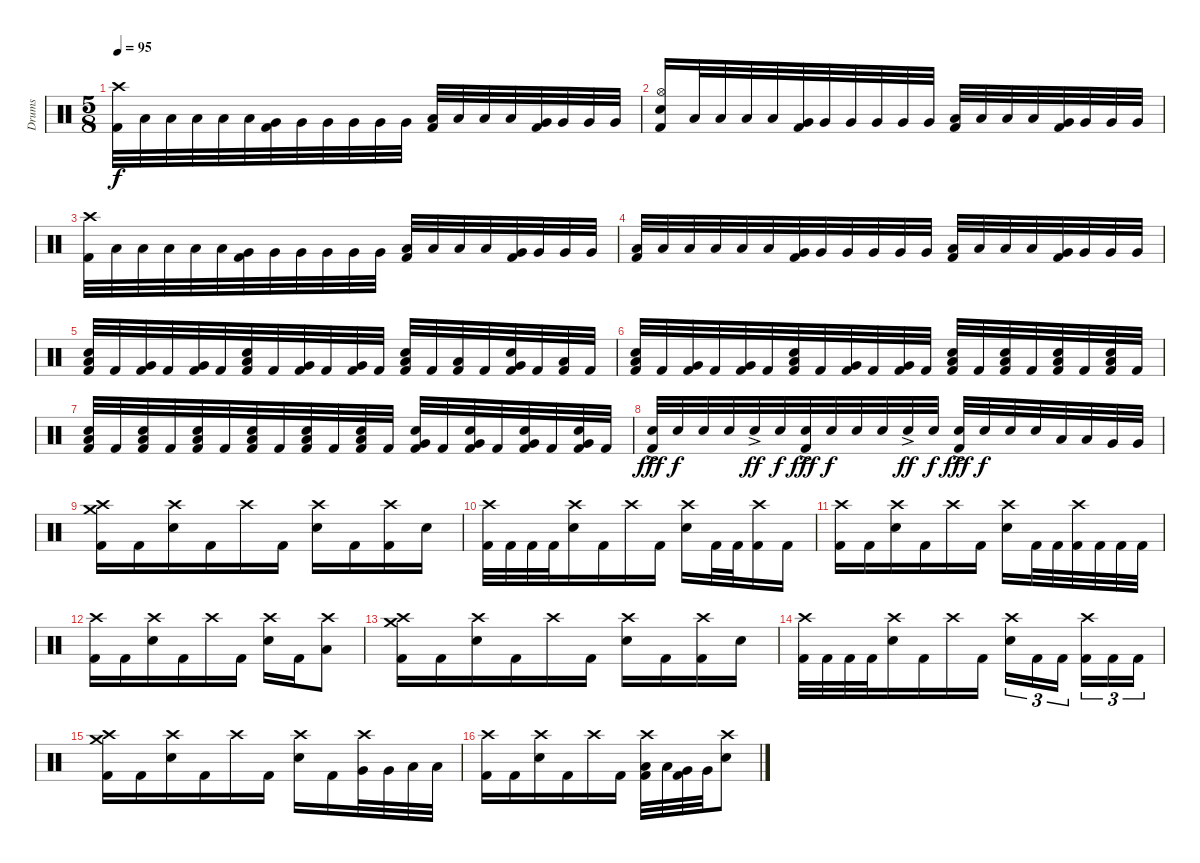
\track ("Drums" "Drums") {instrument percussion}
\staff {score}
\articulation defaults
\ts (5 8)
\tempo 95
\clef neutral
\ks c
("Crash high (hit)" "Kick (hit) 2").32{dy f} "Low Tom (hit)".32 "Low Tom (hit)".32 "Low Tom (hit)".32 "Low Tom (hit)".32 "Low Tom (hit)".32 ("Very Low Tom (hit)" "Kick (hit) 2").32 "Very Low Tom (hit)".32 "Very Low Tom (hit)".32 "Very Low Tom (hit)".32 "Very Low Tom (hit)".32 "Very Low Tom (hit)".32 ("Low Tom (hit)" "Kick (hit) 2").32 "Low Tom (hit)".32 "Low Tom (hit)".32 "Low Tom (hit)".32 ("Very Low Tom (hit)" "Kick (hit) 2").32 "Very Low Tom (hit)".32 "Very Low Tom (hit)".32 "Very Low Tom (hit)".32 |
("Hi-Hat (open)" "Snare (hit) 2" "Kick (hit) 2").16 "Low Tom (hit)".32 "Low Tom (hit)".32 "Low Tom (hit)".32 "Low Tom (hit)".32 ("Very Low Tom (hit)" "Kick (hit) 2").32 "Very Low Tom (hit)".32 "Very Low Tom (hit)".32 "Very Low Tom (hit)".32 "Very Low Tom (hit)".32 "Very Low Tom (hit)".32 ("Low Tom (hit)" "Kick (hit) 2").32 "Low Tom (hit)".32 "Low Tom (hit)".32 "Low Tom (hit)".32 ("Very Low Tom (hit)" "Kick (hit) 2").32 "Very Low Tom (hit)".32 "Very Low Tom (hit)".32 "Very Low Tom (hit)".32 |
("Crash high (hit)" "Kick (hit) 2").32 "Low Tom (hit)".32 "Low Tom (hit)".32 "Low Tom (hit)".32 "Low Tom (hit)".32 "Low Tom (hit)".32 ("Very Low Tom (hit)" "Kick (hit) 2").32 "Very Low Tom (hit)".32 "Very Low Tom (hit)".32 "Very Low Tom (hit)".32 "Very Low Tom (hit)".32 "Very Low Tom (hit)".32 ("Low Tom (hit)" "Kick (hit) 2").32 "Low Tom (hit)".32 "Low Tom (hit)".32 "Low Tom (hit)".32 ("Very Low Tom (hit)" "Kick (hit) 2").32 "Very Low Tom (hit)".32 "Very Low Tom (hit)".32 "Very Low Tom (hit)".32 |
("Low Tom (hit)" "Kick (hit) 2").32 "Low Tom (hit)".32 "Low Tom (hit)".32 "Low Tom (hit)".32 "Low Tom (hit)".32 "Low Tom (hit)".32 ("Very Low Tom (hit)" "Kick (hit) 2").32 "Very Low Tom (hit)".32 "Very Low Tom (hit)".32 "Very Low Tom (hit)".32 "Very Low Tom (hit)".32 "Very Low Tom (hit)".32 ("Low Tom (hit)" "Kick (hit) 2").32 "Low Tom (hit)".32 "Low Tom (hit)".32 "Low Tom (hit)".32 ("Very Low Tom (hit)" "Kick (hit) 2").32 "Very Low Tom (hit)".32 "Very Low Tom (hit)".32 "Very Low Tom (hit)".32 |
("Low Tom (hit)" "Snare (hit) 2" "Kick (hit) 2").32 "Kick (hit) 2".32 ("Very Low Tom (hit)" "Kick (hit) 2").32 "Kick (hit) 2".32 ("Very Low Tom (hit)" "Kick (hit) 2").32 "Kick (hit) 2".32 ("Low Tom (hit)" "Snare (hit) 2" "Kick (hit) 2").32 "Kick (hit) 2".32 ("Very Low Tom (hit)" "Kick (hit) 2").32 "Kick (hit) 2".32 ("Very Low Tom (hit)" "Kick (hit) 2").32 "Kick (hit) 2".32 ("Low Tom (hit)" "Snare (hit) 2" "Kick (hit) 2").32 "Kick (hit) 2".32 ("Low Floor Tom (hit)" "Kick (hit) 2").32 "Kick (hit) 2".32 ("Very Low Tom (hit)" "Snare (hit) 2" "Kick (hit) 2").32 "Kick (hit) 2".32 ("Low Floor Tom (hit)" "Kick (hit) 2").32 "Kick (hit) 2".32 |
("Low Tom (hit)" "Snare (hit) 2" "Kick (hit) 2").32 "Kick (hit) 2".32 ("Very Low Tom (hit)" "Kick (hit) 2").32 "Kick (hit) 2".32 ("Very Low Tom (hit)" "Kick (hit) 2").32 "Kick (hit) 2".32 ("Low Tom (hit)" "Snare (hit) 2" "Kick (hit) 2").32 "Kick (hit) 2".32 ("Very Low Tom (hit)" "Kick (hit) 2").32 "Kick (hit) 2".32 ("Very Low Tom (hit)" "Kick (hit) 2").32 "Kick (hit) 2".32 ("Low Floor Tom (hit)" "Snare (hit) 2" "Kick (hit) 2").32 "Kick (hit) 2".32 ("Low Floor Tom (hit)" "Snare (hit) 2" "Kick (hit) 2").32 "Kick (hit) 2".32 ("Low Floor Tom (hit)" "Snare (hit) 2" "Kick (hit) 2").32 "Kick (hit) 2".32 ("Low Floor Tom (hit)" "Snare (hit) 2" "Kick (hit) 2").32 "Kick (hit) 2".32 |
("Low Tom (hit)" "Snare (hit) 2" "Kick (hit) 2").32 "Kick (hit) 2".32 ("Low Tom (hit)" "Snare (hit) 2" "Kick (hit) 2").32 "Kick (hit) 2".32 ("Low Tom (hit)" "Snare (hit) 2" "Kick (hit) 2").32 "Kick (hit) 2".32 ("Low Tom (hit)" "Snare (hit) 2" "Kick (hit) 2").32 "Kick (hit) 2".32 ("Low Tom (hit)" "Snare (hit) 2" "Kick (hit) 2").32 "Kick (hit) 2".32 ("Low Tom (hit)" "Snare (hit) 2" "Kick (hit) 2").32 "Kick (hit) 2".32 ("Very Low Tom (hit)" "Snare (hit) 2" "Kick (hit) 2").32 "Kick (hit) 2".32 ("Very Low Tom (hit)" "Snare (hit) 2" "Kick (hit) 2").32 "Kick (hit) 2".32 ("Very Low Tom (hit)" "Snare (hit) 2" "Kick (hit) 2").32 "Kick (hit) 2".32 ("Very Low Tom (hit)" "Snare (hit) 2" "Kick (hit) 2").32 "Kick (hit) 2".32 |
("Snare (hit) 2"{ac} "Kick (hit) 2").32{dy fff} "Snare (hit) 2".32{dy f} "Snare (hit) 2".32 "Snare (hit) 2".32 "Snare (hit) 2"{ac}.32{dy ff} "Snare (hit) 2".32{dy f} ("Snare (hit) 2"{ac} "Kick (hit) 2").32{dy fff} "Snare (hit) 2".32{dy f} "Snare (hit) 2".32 "Snare (hit) 2".32 "Snare (hit) 2"{ac}.32{dy ff} "Snare (hit) 2".32{dy f} ("Snare (hit) 2"{ac} "Kick (hit) 2").32{dy fff} "Snare (hit) 2".32{dy f} "Snare (hit) 2".32 "Snare (hit) 2".32 "Low Tom (hit)".32 "Low Tom (hit)".32 "Very Low Tom (hit)".32 "Very Low Tom (hit)".32 |
("Crash medium (hit)" "Crash high (hit)" "Kick (hit) 2").16 "Kick (hit) 2".16 ("Crash high (hit)" "Snare (hit) 2").16 "Kick (hit) 2".16 "Crash high (hit)".16 "Kick (hit) 2".16 ("Crash high (hit)" "Snare (hit) 2").16 "Kick (hit) 2".16 ("Crash high (hit)" "Kick (hit) 2").16 "Snare (hit) 2".16 |
("Crash high (hit)" "Kick (hit) 2").32 "Kick (hit) 2".32 "Kick (hit) 2".32 "Kick (hit) 2".32 ("Crash high (hit)" "Snare (hit) 2").16 "Kick (hit) 2".16 "Crash high (hit)".16 "Kick (hit) 2".16 ("Crash high (hit)" "Snare (hit) 2").16 "Kick (hit) 2".32 "Kick (hit) 2".32 ("Crash high (hit)" "Kick (hit) 2").16 "Kick (hit) 2".16 |
("Crash high (hit)" "Kick (hit) 2").16 "Kick (hit) 2".16 ("Crash high (hit)" "Snare (hit) 2").16 "Kick (hit) 2".16 "Crash high (hit)".16 "Kick (hit) 2".16 ("Crash high (hit)" "Snare (hit) 2").16 "Kick (hit) 2".32 "Kick (hit) 2".32 ("Crash high (hit)" "Kick (hit) 2").32 "Kick (hit) 2".32 "Kick (hit) 2".32 "Kick (hit) 2".32 |
("Crash high (hit)" "Kick (hit) 2").16 "Kick (hit) 2".16 ("Crash high (hit)" "Snare (hit) 2").16 "Kick (hit) 2".16 "Crash high (hit)".16 "Kick (hit) 2".16 ("Crash high (hit)" "Snare (hit) 2").16 "Kick (hit) 2".16 ("Crash high (hit)" "Low Tom (hit)").8 |
("Crash medium (hit)" "Crash high (hit)" "Kick (hit) 2").16 "Kick (hit) 2".16 ("Crash high (hit)" "Snare (hit) 2").16 "Kick (hit) 2".16 "Crash high (hit)".16 "Kick (hit) 2".16 ("Crash high (hit)" "Snare (hit) 2").16 "Kick (hit) 2".16 ("Crash high (hit)" "Kick (hit) 2").16 "Snare (hit) 2".16 |
("Crash high (hit)" "Kick (hit) 2").32 "Kick (hit) 2".32 "Kick (hit) 2".32 "Kick (hit) 2".32 ("Crash high (hit)" "Snare (hit) 2").16 "Kick (hit) 2".16 "Crash high (hit)".16 "Kick (hit) 2".16 ("Crash high (hit)" "Snare (hit) 2").16{tu (3 2)} "Kick (hit) 2".16{tu (3 2)} "Kick (hit) 2".16{tu (3 2)} ("Crash high (hit)" "Kick (hit) 2").16{tu (3 2)} "Kick (hit) 2".16{tu (3 2)} "Kick (hit) 2".16{tu (3 2)} |
("Crash medium (hit)" "Crash high (hit)" "Kick (hit) 2").16 "Kick (hit) 2".16 ("Crash high (hit)" "Snare (hit) 2").16 "Kick (hit) 2".16 "Crash high (hit)".16 "Kick (hit) 2".16 ("Crash high (hit)" "Snare (hit) 2").16 "Kick (hit) 2".16 ("Crash high (hit)" "Very Low Tom (hit)").32 "Very Low Tom (hit)".32 "Low Floor Tom (hit)".32 "Low Floor Tom (hit)".32 |
("Crash high (hit)" "Kick (hit) 2").16 "Kick (hit) 2".16 ("Crash high (hit)" "Snare (hit) 2").16 "Kick (hit) 2".16 "Crash high (hit)".16 "Kick (hit) 2".16 ("Crash high (hit)" "Low Tom (hit)" "Kick (hit) 2").32 "Low Tom (hit)".32 ("Very Low Tom (hit)" "Kick (hit) 2").32 "Very Low Tom (hit)".32 ("Crash high (hit)" "Snare (hit) 2").8
